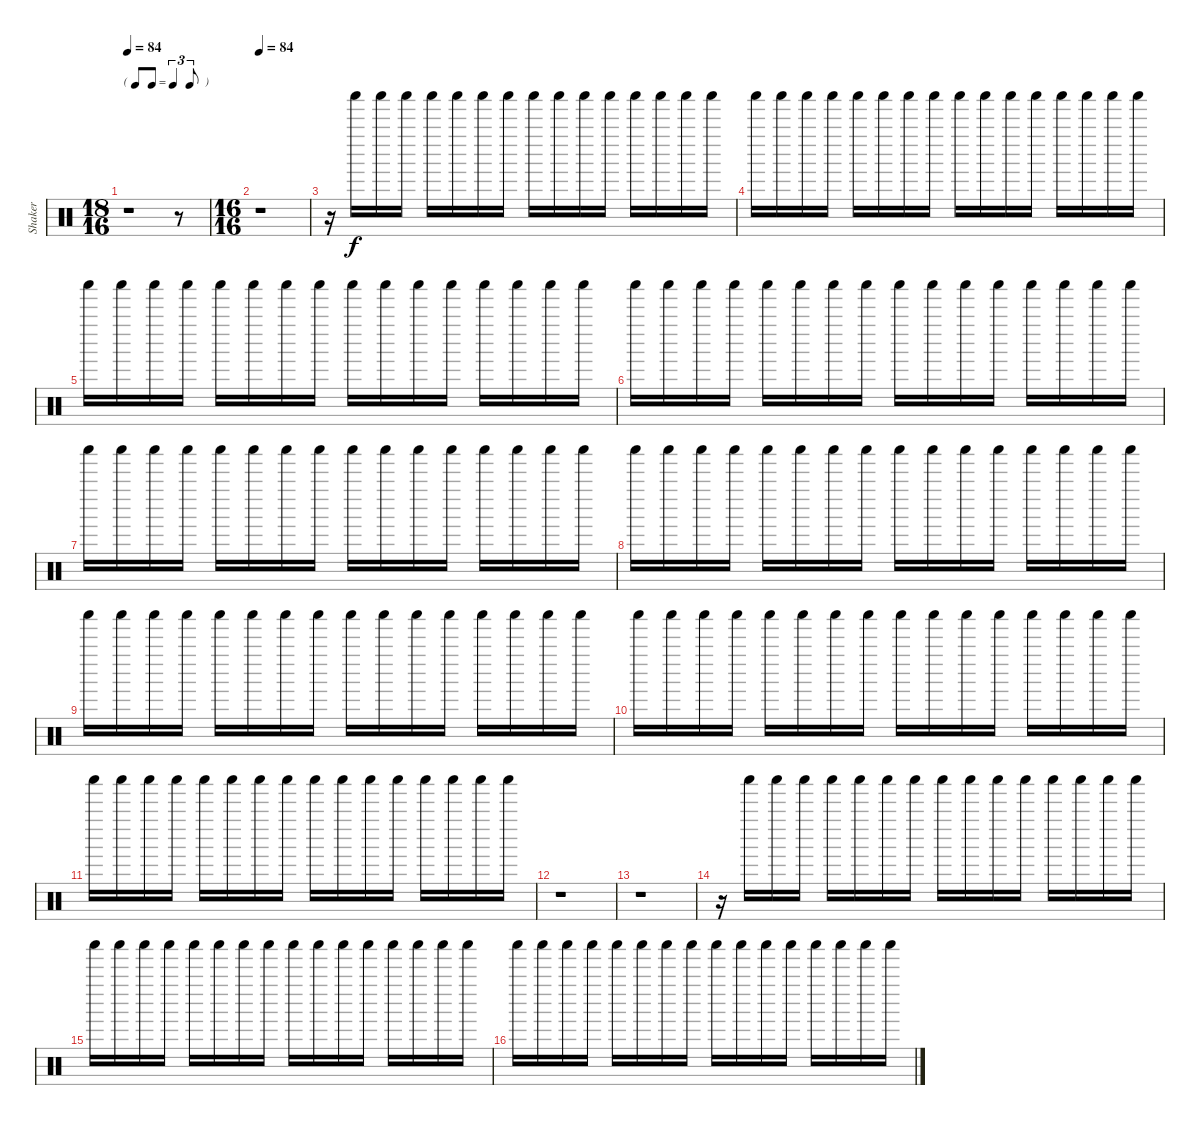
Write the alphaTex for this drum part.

\track ("Shaker" "Shaker") {instrument percussion}
\staff {score}
\articulation defaults
\ts (18 16)
\tf triplet8th
\tempo 84
\tempo 91
\tempo 84
\clef neutral
\ks c
r.1{dy f} r.8 |
\ts (16 16)
\tempo 84
r.1 |
r.16 "Shaker (hit)".16 "Shaker (hit)".16 "Shaker (hit)".16 "Shaker (hit)".16 "Shaker (hit)".16 "Shaker (hit)".16 "Shaker (hit)".16 "Shaker (hit)".16 "Shaker (hit)".16 "Shaker (hit)".16 "Shaker (hit)".16 "Shaker (hit)".16 "Shaker (hit)".16 "Shaker (hit)".16 "Shaker (hit)".16 |
"Shaker (hit)".16 "Shaker (hit)".16 "Shaker (hit)".16 "Shaker (hit)".16 "Shaker (hit)".16 "Shaker (hit)".16 "Shaker (hit)".16 "Shaker (hit)".16 "Shaker (hit)".16 "Shaker (hit)".16 "Shaker (hit)".16 "Shaker (hit)".16 "Shaker (hit)".16 "Shaker (hit)".16 "Shaker (hit)".16 "Shaker (hit)".16 |
"Shaker (hit)".16 "Shaker (hit)".16 "Shaker (hit)".16 "Shaker (hit)".16 "Shaker (hit)".16 "Shaker (hit)".16 "Shaker (hit)".16 "Shaker (hit)".16 "Shaker (hit)".16 "Shaker (hit)".16 "Shaker (hit)".16 "Shaker (hit)".16 "Shaker (hit)".16 "Shaker (hit)".16 "Shaker (hit)".16 "Shaker (hit)".16 |
"Shaker (hit)".16 "Shaker (hit)".16 "Shaker (hit)".16 "Shaker (hit)".16 "Shaker (hit)".16 "Shaker (hit)".16 "Shaker (hit)".16 "Shaker (hit)".16 "Shaker (hit)".16 "Shaker (hit)".16 "Shaker (hit)".16 "Shaker (hit)".16 "Shaker (hit)".16 "Shaker (hit)".16 "Shaker (hit)".16 "Shaker (hit)".16 |
"Shaker (hit)".16 "Shaker (hit)".16 "Shaker (hit)".16 "Shaker (hit)".16 "Shaker (hit)".16 "Shaker (hit)".16 "Shaker (hit)".16 "Shaker (hit)".16 "Shaker (hit)".16 "Shaker (hit)".16 "Shaker (hit)".16 "Shaker (hit)".16 "Shaker (hit)".16 "Shaker (hit)".16 "Shaker (hit)".16 "Shaker (hit)".16 |
"Shaker (hit)".16 "Shaker (hit)".16 "Shaker (hit)".16 "Shaker (hit)".16 "Shaker (hit)".16 "Shaker (hit)".16 "Shaker (hit)".16 "Shaker (hit)".16 "Shaker (hit)".16 "Shaker (hit)".16 "Shaker (hit)".16 "Shaker (hit)".16 "Shaker (hit)".16 "Shaker (hit)".16 "Shaker (hit)".16 "Shaker (hit)".16 |
"Shaker (hit)".16 "Shaker (hit)".16 "Shaker (hit)".16 "Shaker (hit)".16 "Shaker (hit)".16 "Shaker (hit)".16 "Shaker (hit)".16 "Shaker (hit)".16 "Shaker (hit)".16 "Shaker (hit)".16 "Shaker (hit)".16 "Shaker (hit)".16 "Shaker (hit)".16 "Shaker (hit)".16 "Shaker (hit)".16 "Shaker (hit)".16 |
"Shaker (hit)".16 "Shaker (hit)".16 "Shaker (hit)".16 "Shaker (hit)".16 "Shaker (hit)".16 "Shaker (hit)".16 "Shaker (hit)".16 "Shaker (hit)".16 "Shaker (hit)".16 "Shaker (hit)".16 "Shaker (hit)".16 "Shaker (hit)".16 "Shaker (hit)".16 "Shaker (hit)".16 "Shaker (hit)".16 "Shaker (hit)".16 |
"Shaker (hit)".16 "Shaker (hit)".16 "Shaker (hit)".16 "Shaker (hit)".16 "Shaker (hit)".16 "Shaker (hit)".16 "Shaker (hit)".16 "Shaker (hit)".16 "Shaker (hit)".16 "Shaker (hit)".16 "Shaker (hit)".16 "Shaker (hit)".16 "Shaker (hit)".16 "Shaker (hit)".16 "Shaker (hit)".16 "Shaker (hit)".16 |
r.1 |
r.1 |
r.16 "Shaker (hit)".16 "Shaker (hit)".16 "Shaker (hit)".16 "Shaker (hit)".16 "Shaker (hit)".16 "Shaker (hit)".16 "Shaker (hit)".16 "Shaker (hit)".16 "Shaker (hit)".16 "Shaker (hit)".16 "Shaker (hit)".16 "Shaker (hit)".16 "Shaker (hit)".16 "Shaker (hit)".16 "Shaker (hit)".16 |
"Shaker (hit)".16 "Shaker (hit)".16 "Shaker (hit)".16 "Shaker (hit)".16 "Shaker (hit)".16 "Shaker (hit)".16 "Shaker (hit)".16 "Shaker (hit)".16 "Shaker (hit)".16 "Shaker (hit)".16 "Shaker (hit)".16 "Shaker (hit)".16 "Shaker (hit)".16 "Shaker (hit)".16 "Shaker (hit)".16 "Shaker (hit)".16 |
"Shaker (hit)".16 "Shaker (hit)".16 "Shaker (hit)".16 "Shaker (hit)".16 "Shaker (hit)".16 "Shaker (hit)".16 "Shaker (hit)".16 "Shaker (hit)".16 "Shaker (hit)".16 "Shaker (hit)".16 "Shaker (hit)".16 "Shaker (hit)".16 "Shaker (hit)".16 "Shaker (hit)".16 "Shaker (hit)".16 "Shaker (hit)".16
